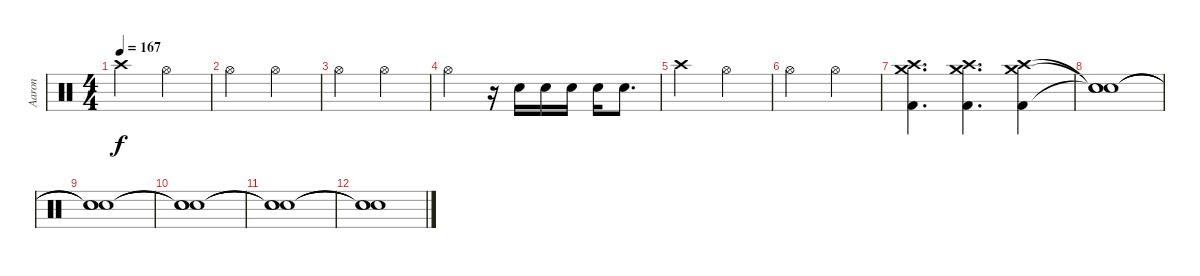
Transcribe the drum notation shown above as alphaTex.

\track ("Aaron" "Aaron") {instrument percussion}
\staff {score}
\articulation defaults
\ts (4 4)
\tempo 167
\clef neutral
\ks c "Crash high (hit)".2{dy f} "Hi-Hat (open)".2
|
"Hi-Hat (open)".2 "Hi-Hat (open)".2 |
"Hi-Hat (open)".2 "Hi-Hat (open)".2 |
"Hi-Hat (open)".2 r.16 "Electric Snare (hit)".16 "Electric Snare (hit)".16 "Electric Snare (hit)".16 "Electric Snare (hit)".16 "Electric Snare (hit)".8{d} |
"Crash high (hit)".2 "Hi-Hat (open)".2 |
"Hi-Hat (open)".2 "Hi-Hat (open)".2 |
("Crash high (hit)" "Crash medium (hit)" "Kick (hit) 2").4{d} ("Crash high (hit)" "Crash medium (hit)" "Kick (hit) 2").4{d} ("Crash high (hit)" "Crash medium (hit)" "Kick (hit) 2").4 |
("Snare (hit)"{t} "Snare (hit)"{t} "Snare (hit)"{t}).1 |
("Snare (hit)"{t} "Snare (hit)"{t} "Snare (hit)"{t}).1 |
("Snare (hit)"{t} "Snare (hit)"{t} "Snare (hit)"{t}).1 |
("Snare (hit)"{t} "Snare (hit)"{t} "Snare (hit)"{t}).1 |
("Snare (hit)"{t} "Snare (hit)"{t} "Snare (hit)"{t}).1
